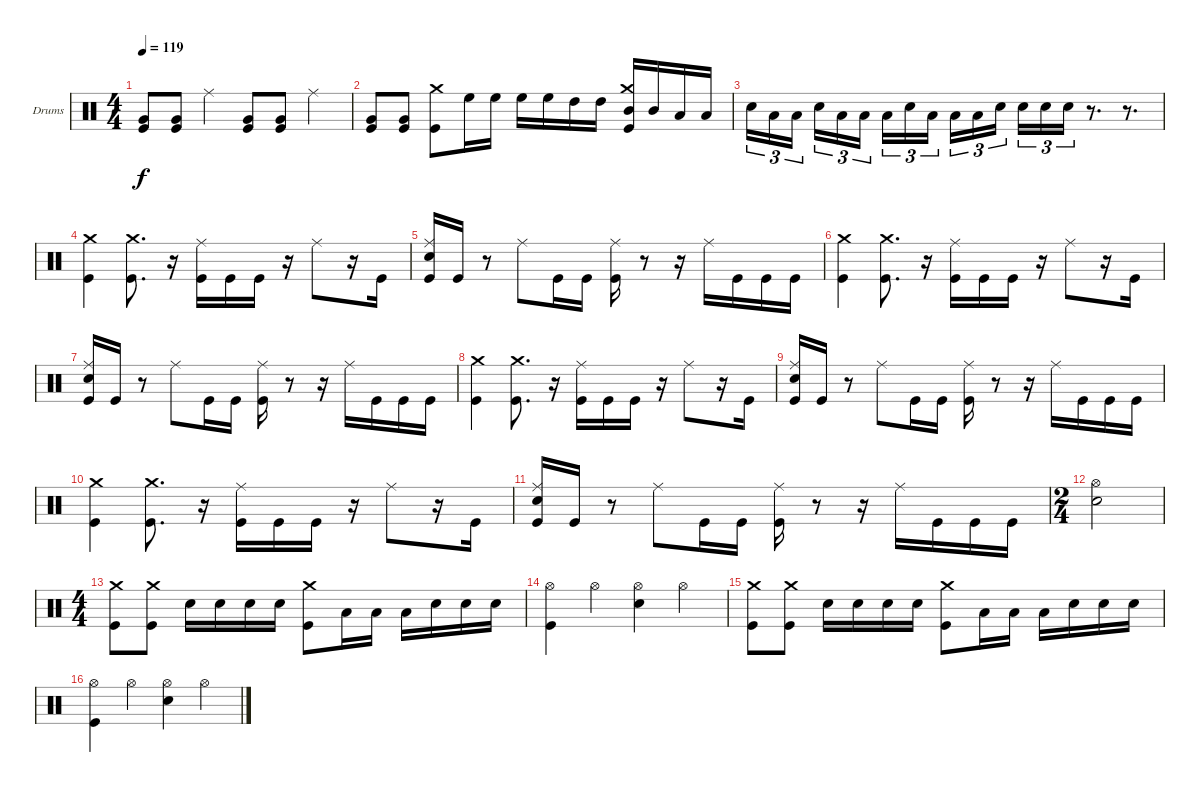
\bracketExtendMode groupsimilarinstruments
\firstSystemTrackNameOrientation horizontal
\otherSystemsTrackNameOrientation horizontal
\track ("Drumkit" "Drums") {instrument percussion}
\staff {score}
\articulation defaults
\ts (4 4)
\tempo 119
\clef neutral
\ks c
("Very Low Tom (hit)" "Kick (hit)").8{dy f} ("Very Low Tom (hit)" "Kick (hit)").8 "Ride (middle)".4 ("Very Low Tom (hit)" "Kick (hit)").8 ("Very Low Tom (hit)" "Kick (hit)").8 "Ride (middle)".4 |
("Very Low Tom (hit)" "Kick (hit)").8 ("Very Low Tom (hit)" "Kick (hit)").8 ("Crash medium (hit)" "Kick (hit)").8 "High Floor Tom (hit)".16 "High Floor Tom (hit)".16 "High Floor Tom (hit)".16 "High Floor Tom (hit)".16 "High Tom (hit)".16 "High Tom (hit)".16 ("Crash medium (hit)" "Kick (hit)" "Mid Tom (hit)").16 "Mid Tom (hit)".16 "Low Tom (hit)".16 "Low Tom (hit)".16 |
"Snare (hit) 2".16{tu (3 2)} "Low Tom (hit)".16{tu (3 2)} "Low Tom (hit)".16{tu (3 2)} "Snare (hit) 2".16{tu (3 2)} "Low Tom (hit)".16{tu (3 2)} "Low Tom (hit)".16{tu (3 2)} "Low Tom (hit)".16{tu (3 2)} "Snare (hit) 2".16{tu (3 2)} "Low Tom (hit)".16{tu (3 2)} "Low Tom (hit)".16{tu (3 2)} "Low Tom (hit)".16{tu (3 2)} "Snare (hit) 2".16{tu (3 2)} "Snare (hit) 2".16{tu (3 2)} "Snare (hit) 2".16{tu (3 2)} "Snare (hit) 2".16{tu (3 2)} r.8{d} r.8{d} |
("Crash medium (hit)" "Kick (hit)").4 ("Crash medium (hit)" "Kick (hit)").8{d} r.16 ("Ride (middle)" "Kick (hit)").16 "Kick (hit)".16 "Kick (hit)".16 r.16 "Ride (middle)".8 r.16 "Kick (hit)".16 |
("Ride (middle)" "Snare (hit) 2" "Kick (hit)").16 "Kick (hit)".16 r.8 "Ride (middle)".8 "Kick (hit)".16 "Kick (hit)".16 ("Ride (middle)" "Kick (hit)").16 r.8 r.16 "Ride (middle)".16 "Kick (hit)".16 "Kick (hit)".16 "Kick (hit)".16 |
("Crash medium (hit)" "Kick (hit)").4 ("Crash medium (hit)" "Kick (hit)").8{d} r.16 ("Ride (middle)" "Kick (hit)").16 "Kick (hit)".16 "Kick (hit)".16 r.16 "Ride (middle)".8 r.16 "Kick (hit)".16 |
("Ride (middle)" "Snare (hit) 2" "Kick (hit)").16 "Kick (hit)".16 r.8 "Ride (middle)".8 "Kick (hit)".16 "Kick (hit)".16 ("Ride (middle)" "Kick (hit)").16 r.8 r.16 "Ride (middle)".16 "Kick (hit)".16 "Kick (hit)".16 "Kick (hit)".16 |
("Crash medium (hit)" "Kick (hit)").4 ("Crash medium (hit)" "Kick (hit)").8{d} r.16 ("Ride (middle)" "Kick (hit)").16 "Kick (hit)".16 "Kick (hit)".16 r.16 "Ride (middle)".8 r.16 "Kick (hit)".16 |
("Ride (middle)" "Snare (hit) 2" "Kick (hit)").16 "Kick (hit)".16 r.8 "Ride (middle)".8 "Kick (hit)".16 "Kick (hit)".16 ("Ride (middle)" "Kick (hit)").16 r.8 r.16 "Ride (middle)".16 "Kick (hit)".16 "Kick (hit)".16 "Kick (hit)".16 |
("Crash medium (hit)" "Kick (hit)").4 ("Crash medium (hit)" "Kick (hit)").8{d} r.16 ("Ride (middle)" "Kick (hit)").16 "Kick (hit)".16 "Kick (hit)".16 r.16 "Ride (middle)".8 r.16 "Kick (hit)".16 |
("Ride (middle)" "Snare (hit) 2" "Kick (hit)").16 "Kick (hit)".16 r.8 "Ride (middle)".8 "Kick (hit)".16 "Kick (hit)".16 ("Ride (middle)" "Kick (hit)").16 r.8 r.16 "Ride (middle)".16 "Kick (hit)".16 "Kick (hit)".16 "Kick (hit)".16 |
\ts (2 4)
("Hi-Hat (open)" "Snare (hit) 2").2 |
\ts (4 4)
("Crash medium (hit)" "Kick (hit)").8 ("Crash medium (hit)" "Kick (hit)").8 "Snare (hit) 2".16 "Snare (hit) 2".16 "Snare (hit) 2".16 "Snare (hit) 2".16 ("Crash medium (hit)" "Kick (hit)").8 "Low Tom (hit)".16 "Low Tom (hit)".16 "Low Tom (hit)".16 "Snare (hit) 2".16 "Snare (hit) 2".16 "Snare (hit) 2".16 |
("Hi-Hat (open)" "Kick (hit)").4 "Hi-Hat (open)".4 ("Hi-Hat (open)" "Snare (hit) 2").4 "Hi-Hat (open)".4 |
("Crash medium (hit)" "Kick (hit)").8 ("Crash medium (hit)" "Kick (hit)").8 "Snare (hit) 2".16 "Snare (hit) 2".16 "Snare (hit) 2".16 "Snare (hit) 2".16 ("Crash medium (hit)" "Kick (hit)").8 "Low Tom (hit)".16 "Low Tom (hit)".16 "Low Tom (hit)".16 "Snare (hit) 2".16 "Snare (hit) 2".16 "Snare (hit) 2".16 |
("Hi-Hat (open)" "Kick (hit)").4 "Hi-Hat (open)".4 ("Hi-Hat (open)" "Snare (hit) 2").4 "Hi-Hat (open)".4
